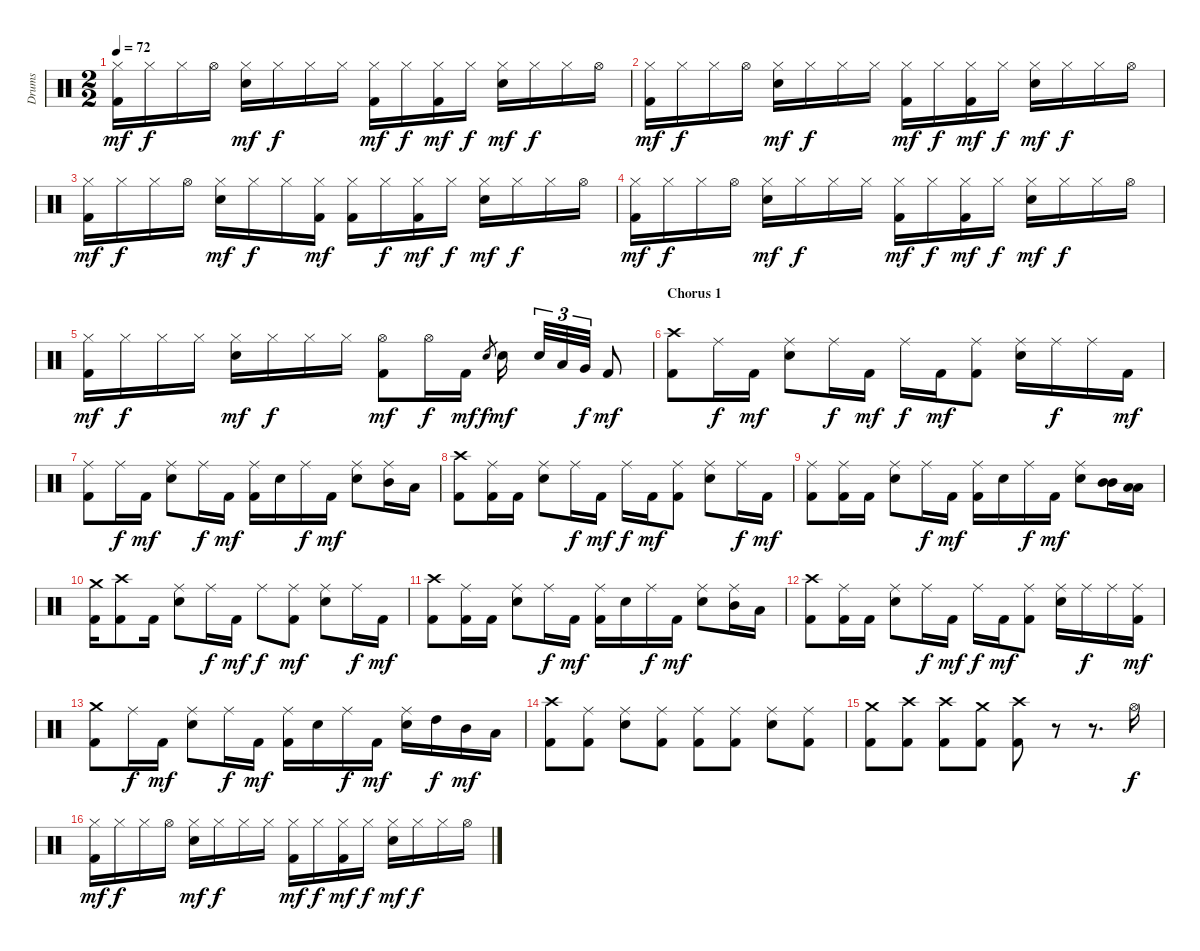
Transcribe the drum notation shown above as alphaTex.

\track ("Drums" "Drums") {instrument percussion}
\staff {score}
\articulation defaults
\ts (2 2)
\tempo 72
\clef neutral
\ks c
("Hi-Hat (closed)" "Kick (hit) 2").16{dy mf} "Hi-Hat (closed)".16{dy f} "Hi-Hat (closed)".16 "Hi-Hat (open)".16 ("Hi-Hat (closed)" "Electric Snare (hit)").16{dy mf} "Hi-Hat (closed)".16{dy f} "Hi-Hat (closed)".16 "Hi-Hat (closed)".16 ("Hi-Hat (closed)" "Kick (hit) 2").16{dy mf} "Hi-Hat (closed)".16{dy f} ("Hi-Hat (closed)" "Kick (hit) 2").16{dy mf} "Hi-Hat (closed)".16{dy f} ("Hi-Hat (closed)" "Electric Snare (hit)").16{dy mf} "Hi-Hat (closed)".16{dy f} "Hi-Hat (closed)".16 "Hi-Hat (open)".16 |
("Hi-Hat (closed)" "Kick (hit) 2").16{dy mf} "Hi-Hat (closed)".16{dy f} "Hi-Hat (closed)".16 "Hi-Hat (open)".16 ("Hi-Hat (closed)" "Electric Snare (hit)").16{dy mf} "Hi-Hat (closed)".16{dy f} "Hi-Hat (closed)".16 "Hi-Hat (closed)".16 ("Hi-Hat (closed)" "Kick (hit) 2").16{dy mf} "Hi-Hat (closed)".16{dy f} ("Hi-Hat (closed)" "Kick (hit) 2").16{dy mf} "Hi-Hat (closed)".16{dy f} ("Hi-Hat (closed)" "Electric Snare (hit)").16{dy mf} "Hi-Hat (closed)".16{dy f} "Hi-Hat (closed)".16 "Hi-Hat (open)".16 |
("Hi-Hat (closed)" "Kick (hit) 2").16{dy mf} "Hi-Hat (closed)".16{dy f} "Hi-Hat (closed)".16 "Hi-Hat (open)".16 ("Hi-Hat (closed)" "Electric Snare (hit)").16{dy mf} "Hi-Hat (closed)".16{dy f} "Hi-Hat (closed)".16 ("Hi-Hat (closed)" "Kick (hit) 2").16{dy mf} ("Hi-Hat (closed)" "Kick (hit) 2").16 "Hi-Hat (closed)".16{dy f} ("Hi-Hat (closed)" "Kick (hit) 2").16{dy mf} "Hi-Hat (closed)".16{dy f} ("Hi-Hat (closed)" "Electric Snare (hit)").16{dy mf} "Hi-Hat (closed)".16{dy f} "Hi-Hat (closed)".16 "Hi-Hat (open)".16 |
("Hi-Hat (closed)" "Kick (hit) 2").16{dy mf} "Hi-Hat (closed)".16{dy f} "Hi-Hat (closed)".16 "Hi-Hat (open)".16 ("Hi-Hat (closed)" "Electric Snare (hit)").16{dy mf} "Hi-Hat (closed)".16{dy f} "Hi-Hat (closed)".16 "Hi-Hat (closed)".16 ("Hi-Hat (closed)" "Kick (hit) 2").16{dy mf} "Hi-Hat (closed)".16{dy f} ("Hi-Hat (closed)" "Kick (hit) 2").16{dy mf} "Hi-Hat (closed)".16{dy f} ("Hi-Hat (closed)" "Electric Snare (hit)").16{dy mf} "Hi-Hat (closed)".16{dy f} "Hi-Hat (closed)".16 "Hi-Hat (open)".16 |
("Hi-Hat (closed)" "Kick (hit) 2").16{dy mf} "Hi-Hat (closed)".16{dy f} "Hi-Hat (closed)".16 "Hi-Hat (closed)".16 ("Hi-Hat (closed)" "Electric Snare (hit)").16{dy mf} "Hi-Hat (closed)".16{dy f} "Hi-Hat (closed)".16 "Hi-Hat (closed)".16 ("Hi-Hat (open)" "Kick (hit) 2").8{dy mf} "Hi-Hat (open)".16{dy f} "Kick (hit) 2".16{dy mf} "Electric Snare (hit)".8{gr dy f} "Electric Snare (hit)".16{dy mf} "Electric Snare (hit)".32{tu (3 2)} "Low Tom (hit)".32{tu (3 2)} "Very Low Tom (hit)".32{tu (3 2) dy f} "Kick (hit) 2".8{dy mf} |
\section ("" "Chorus 1")
("Crash high (hit)" "Kick (hit) 2").8 "Ride (middle)".16{dy f} "Kick (hit) 2".16{dy mf} ("Ride (middle)" "Electric Snare (hit)").8 "Ride (middle)".16{dy f} "Kick (hit) 2".16{dy mf} "Ride (middle)".16{dy f} "Kick (hit) 2".16{dy mf} ("Ride (middle)" "Kick (hit) 2").8 ("Ride (middle)" "Electric Snare (hit)").16 "Ride (middle)".16{dy f} "Ride (middle)".16 "Kick (hit) 2".16{dy mf} |
("Ride (middle)" "Kick (hit) 2").8 "Ride (middle)".16{dy f} "Kick (hit) 2".16{dy mf} ("Ride (middle)" "Electric Snare (hit)").8 "Ride (middle)".16{dy f} "Kick (hit) 2".16{dy mf} ("Ride (middle)" "Kick (hit) 2").16 "Electric Snare (hit)".16 "Ride (middle)".16{dy f} "Kick (hit) 2".16{dy mf} ("Ride (middle)" "Electric Snare (hit)").8 ("Ride (middle)" "Mid Tom (hit)").16 "Low Tom (hit)".16 |
("Crash high (hit)" "Kick (hit) 2").8 ("Ride (middle)" "Kick (hit) 2").16 "Kick (hit) 2".16 ("Ride (middle)" "Electric Snare (hit)").8 "Ride (middle)".16{dy f} "Kick (hit) 2".16{dy mf} "Ride (middle)".16{dy f} "Kick (hit) 2".16{dy mf} ("Ride (middle)" "Kick (hit) 2").8 ("Ride (middle)" "Electric Snare (hit)").8 "Ride (middle)".16{dy f} "Kick (hit) 2".16{dy mf} |
("Ride (middle)" "Kick (hit) 2").8 ("Ride (middle)" "Kick (hit) 2").16 "Kick (hit) 2".16 ("Ride (middle)" "Electric Snare (hit)").8 "Ride (middle)".16{dy f} "Kick (hit) 2".16{dy mf} ("Ride (middle)" "Kick (hit) 2").16 "Electric Snare (hit)".16 "Ride (middle)".16{dy f} "Kick (hit) 2".16{dy mf} ("Ride (middle)" "Electric Snare (hit)").8 ("Mid Tom (hit)" "Mid Tom (hit)").16 ("Low Tom (hit)" "Low Tom (hit)").16 |
("Crash medium (hit)" "Kick (hit) 2").16 ("Crash high (hit)" "Kick (hit) 2").8 "Kick (hit) 2".16 ("Ride (middle)" "Electric Snare (hit)").8 "Ride (middle)".16{dy f} "Kick (hit) 2".16{dy mf} "Ride (middle)".8{dy f} ("Ride (middle)" "Kick (hit) 2").8{dy mf} ("Ride (middle)" "Electric Snare (hit)").8 "Ride (middle)".16{dy f} "Kick (hit) 2".16{dy mf} |
("Crash high (hit)" "Kick (hit) 2").8 ("Ride (middle)" "Kick (hit) 2").16 "Kick (hit) 2".16 ("Ride (middle)" "Electric Snare (hit)").8 "Ride (middle)".16{dy f} "Kick (hit) 2".16{dy mf} ("Ride (middle)" "Kick (hit) 2").16 "Electric Snare (hit)".16 "Ride (middle)".16{dy f} "Kick (hit) 2".16{dy mf} ("Ride (middle)" "Electric Snare (hit)").8 ("Ride (middle)" "Mid Tom (hit)").16 "Low Tom (hit)".16 |
("Crash high (hit)" "Kick (hit) 2").8 ("Ride (middle)" "Kick (hit) 2").16 "Kick (hit) 2".16 ("Ride (middle)" "Electric Snare (hit)").8 "Ride (middle)".16{dy f} "Kick (hit) 2".16{dy mf} "Ride (middle)".16{dy f} "Kick (hit) 2".16{dy mf} ("Ride (middle)" "Kick (hit) 2").8 ("Ride (middle)" "Electric Snare (hit)").16 "Ride (middle)".16{dy f} "Ride (middle)".16 ("Ride (middle)" "Kick (hit) 2").16{dy mf} |
("Crash medium (hit)" "Kick (hit) 2").8 "Ride (middle)".16{dy f} "Kick (hit) 2".16{dy mf} ("Ride (middle)" "Electric Snare (hit)").8 "Ride (middle)".16{dy f} "Kick (hit) 2".16{dy mf} ("Ride (middle)" "Kick (hit) 2").16 "Electric Snare (hit)".16 "Ride (middle)".16{dy f} "Kick (hit) 2".16{dy mf} ("Ride (middle)" "Electric Snare (hit)").16 "High Tom (hit)".16{dy f} "Mid Tom (hit)".16{dy mf} "Low Tom (hit)".16 |
("Crash high (hit)" "Kick (hit) 2").8 ("Ride (middle)" "Kick (hit) 2").8 ("Ride (middle)" "Electric Snare (hit)").8 ("Ride (middle)" "Kick (hit) 2").8 ("Ride (middle)" "Kick (hit) 2").8 ("Ride (middle)" "Kick (hit) 2").8 ("Ride (middle)" "Electric Snare (hit)").8 ("Ride (middle)" "Kick (hit) 2").8 |
("Crash medium (hit)" "Kick (hit) 2").8 ("Crash high (hit)" "Kick (hit) 2").8 ("Crash high (hit)" "Kick (hit) 2").8 ("Crash medium (hit)" "Kick (hit) 2").8 ("Crash high (hit)" "Kick (hit) 2").8 r.8 r.8{d} "Hi-Hat (open)".16{dy f} |
("Hi-Hat (closed)" "Kick (hit) 2").16{dy mf} "Hi-Hat (closed)".16{dy f} "Hi-Hat (closed)".16 "Hi-Hat (open)".16 ("Hi-Hat (closed)" "Electric Snare (hit)").16{dy mf} "Hi-Hat (closed)".16{dy f} "Hi-Hat (closed)".16 "Hi-Hat (closed)".16 ("Hi-Hat (closed)" "Kick (hit) 2").16{dy mf} "Hi-Hat (closed)".16{dy f} ("Hi-Hat (closed)" "Kick (hit) 2").16{dy mf} "Hi-Hat (closed)".16{dy f} ("Hi-Hat (closed)" "Electric Snare (hit)").16{dy mf} "Hi-Hat (closed)".16{dy f} "Hi-Hat (closed)".16 "Hi-Hat (open)".16
